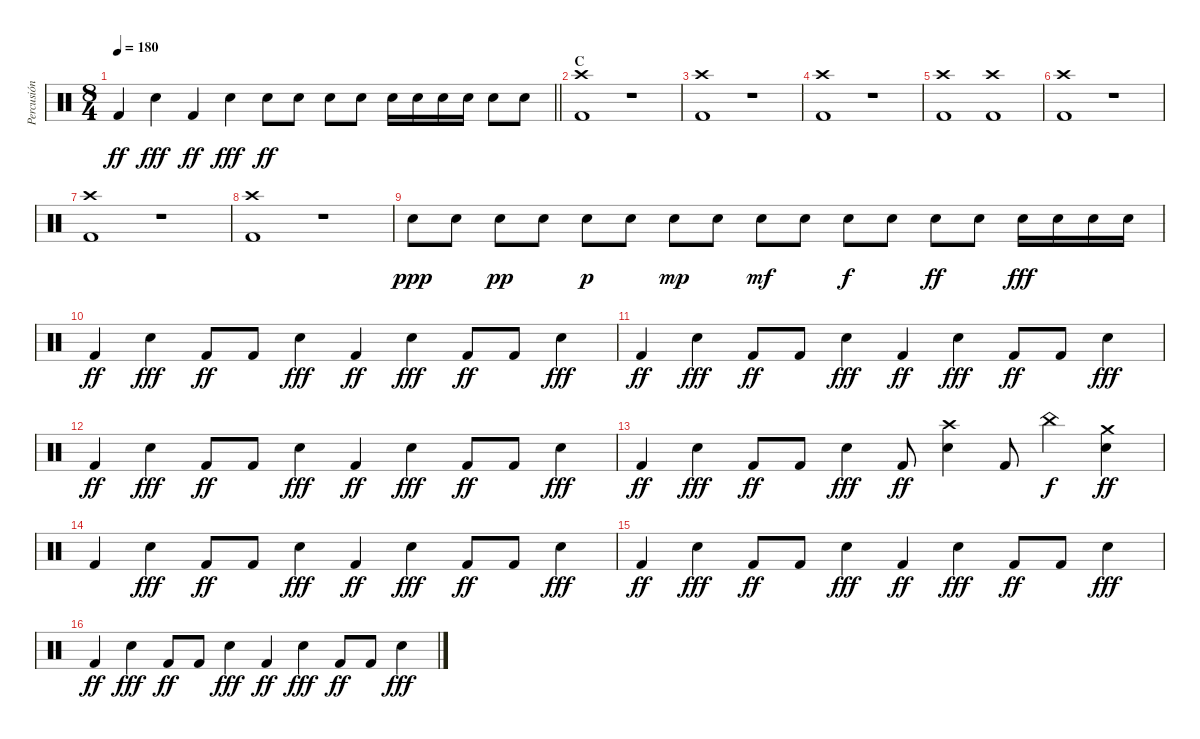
\track ("Percusión" "Percusión") {instrument percussion}
\staff {score}
\articulation defaults
\ts (8 4)
\tempo 180
\clef neutral
\barLineRight lightlight
\ks c "Kick (hit) 2".4{dy ff} "Electric Snare (hit)".4{dy fff} "Kick (hit) 2".4{dy ff} "Electric Snare (hit)".4{dy fff} "Electric Snare (hit)".8{dy ff} "Electric Snare (hit)".8 "Electric Snare (hit)".8 "Electric Snare (hit)".8 "Electric Snare (hit)".16 "Electric Snare (hit)".16 "Electric Snare (hit)".16 "Electric Snare (hit)".16 "Electric Snare (hit)".8 "Electric Snare (hit)".8
|
\section ("" "C")
("Crash high (hit)" "Kick (hit) 2").1 r.1 |
("Crash high (hit)" "Kick (hit) 2").1 r.1 |
("Crash high (hit)" "Kick (hit) 2").1 r.1 |
("Crash high (hit)" "Kick (hit) 2").1 ("Crash high (hit)" "Kick (hit) 2").1 |
("Crash high (hit)" "Kick (hit) 2").1 r.1 |
("Crash high (hit)" "Kick (hit) 2").1 r.1 |
("Crash high (hit)" "Kick (hit) 2").1 r.1 |
"Electric Snare (hit)".8{dy ppp} "Electric Snare (hit)".8 "Electric Snare (hit)".8{dy pp} "Electric Snare (hit)".8 "Electric Snare (hit)".8{dy p} "Electric Snare (hit)".8 "Electric Snare (hit)".8{dy mp} "Electric Snare (hit)".8 "Electric Snare (hit)".8{dy mf} "Electric Snare (hit)".8 "Electric Snare (hit)".8{dy f} "Electric Snare (hit)".8 "Electric Snare (hit)".8{dy ff} "Electric Snare (hit)".8 "Electric Snare (hit)".16{dy fff} "Electric Snare (hit)".16 "Electric Snare (hit)".16 "Electric Snare (hit)".16 |
"Kick (hit) 2".4{dy ff} "Electric Snare (hit)".4{dy fff} "Kick (hit) 2".8{dy ff} "Kick (hit) 2".8 "Electric Snare (hit)".4{dy fff} "Kick (hit) 2".4{dy ff} "Electric Snare (hit)".4{dy fff} "Kick (hit) 2".8{dy ff} "Kick (hit) 2".8 "Electric Snare (hit)".4{dy fff} |
"Kick (hit) 2".4{dy ff} "Electric Snare (hit)".4{dy fff} "Kick (hit) 2".8{dy ff} "Kick (hit) 2".8 "Electric Snare (hit)".4{dy fff} "Kick (hit) 2".4{dy ff} "Electric Snare (hit)".4{dy fff} "Kick (hit) 2".8{dy ff} "Kick (hit) 2".8 "Electric Snare (hit)".4{dy fff} |
"Kick (hit) 2".4{dy ff} "Electric Snare (hit)".4{dy fff} "Kick (hit) 2".8{dy ff} "Kick (hit) 2".8 "Electric Snare (hit)".4{dy fff} "Kick (hit) 2".4{dy ff} "Electric Snare (hit)".4{dy fff} "Kick (hit) 2".8{dy ff} "Kick (hit) 2".8 "Electric Snare (hit)".4{dy fff} |
"Kick (hit) 2".4{dy ff} "Electric Snare (hit)".4{dy fff} "Kick (hit) 2".8{dy ff} "Kick (hit) 2".8 "Electric Snare (hit)".4{dy fff} "Kick (hit) 2".8{dy ff} ("Crash high (hit)" "Electric Snare (hit)").4 "Kick (hit) 2".8 "China (hit)".4{dy f} ("Crash medium (hit)" "Electric Snare (hit)").4{dy ff} |
"Kick (hit) 2".4 "Electric Snare (hit)".4{dy fff} "Kick (hit) 2".8{dy ff} "Kick (hit) 2".8 "Electric Snare (hit)".4{dy fff} "Kick (hit) 2".4{dy ff} "Electric Snare (hit)".4{dy fff} "Kick (hit) 2".8{dy ff} "Kick (hit) 2".8 "Electric Snare (hit)".4{dy fff} |
"Kick (hit) 2".4{dy ff} "Electric Snare (hit)".4{dy fff} "Kick (hit) 2".8{dy ff} "Kick (hit) 2".8 "Electric Snare (hit)".4{dy fff} "Kick (hit) 2".4{dy ff} "Electric Snare (hit)".4{dy fff} "Kick (hit) 2".8{dy ff} "Kick (hit) 2".8 "Electric Snare (hit)".4{dy fff} |
"Kick (hit) 2".4{dy ff} "Electric Snare (hit)".4{dy fff} "Kick (hit) 2".8{dy ff} "Kick (hit) 2".8 "Electric Snare (hit)".4{dy fff} "Kick (hit) 2".4{dy ff} "Electric Snare (hit)".4{dy fff} "Kick (hit) 2".8{dy ff} "Kick (hit) 2".8 "Electric Snare (hit)".4{dy fff}
